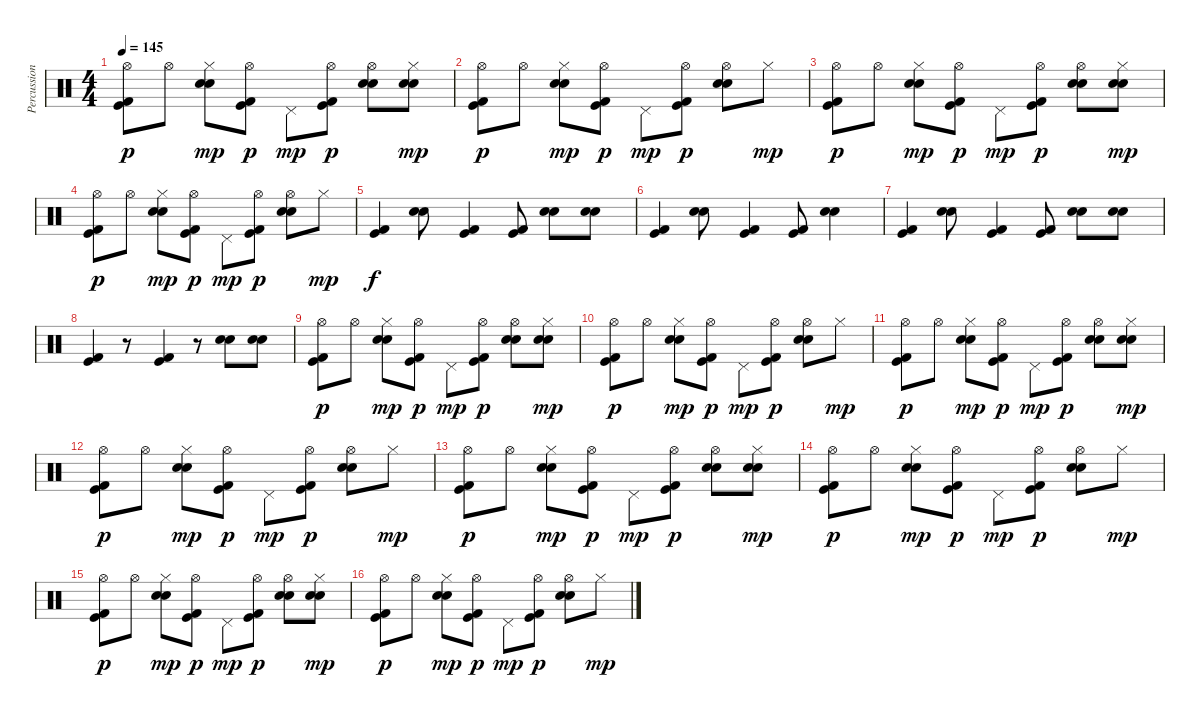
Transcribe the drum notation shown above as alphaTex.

\track ("Percussions" "Percussion") {instrument percussion}
\staff {score}
\articulation defaults
\ts (4 4)
\tempo 145
\clef neutral
\ks c
("Kick (hit) 2" "Kick (hit)" "Hi-Hat (open)").8{dy p} "Hi-Hat (open)".8 ("Snare (hit) 2" "Electric Snare (hit)" "Hi-Hat (closed)").8{dy mp} ("Kick (hit) 2" "Kick (hit)" "Hi-Hat (open)").8{dy p} "Pedal Hi-Hat (hit)".8{dy mp} ("Kick (hit) 2" "Kick (hit)" "Hi-Hat (open)").8{dy p} ("Snare (hit) 2" "Electric Snare (hit)" "Hi-Hat (open)").8 ("Snare (hit) 2" "Electric Snare (hit)" "Hi-Hat (closed)").8{dy mp} |
("Kick (hit) 2" "Kick (hit)" "Hi-Hat (open)").8{dy p} "Hi-Hat (open)".8 ("Snare (hit) 2" "Electric Snare (hit)" "Hi-Hat (closed)").8{dy mp} ("Kick (hit) 2" "Kick (hit)" "Hi-Hat (open)").8{dy p} "Pedal Hi-Hat (hit)".8{dy mp} ("Kick (hit) 2" "Kick (hit)" "Hi-Hat (open)").8{dy p} ("Snare (hit) 2" "Electric Snare (hit)" "Hi-Hat (open)").8 "Hi-Hat (closed)".8{dy mp} |
("Kick (hit) 2" "Kick (hit)" "Hi-Hat (open)").8{dy p} "Hi-Hat (open)".8 ("Snare (hit) 2" "Electric Snare (hit)" "Hi-Hat (closed)").8{dy mp} ("Kick (hit) 2" "Kick (hit)" "Hi-Hat (open)").8{dy p} "Pedal Hi-Hat (hit)".8{dy mp} ("Kick (hit) 2" "Kick (hit)" "Hi-Hat (open)").8{dy p} ("Snare (hit) 2" "Electric Snare (hit)" "Hi-Hat (open)").8 ("Snare (hit) 2" "Electric Snare (hit)" "Hi-Hat (closed)").8{dy mp} |
("Kick (hit) 2" "Kick (hit)" "Hi-Hat (open)").8{dy p} "Hi-Hat (open)".8 ("Snare (hit) 2" "Electric Snare (hit)" "Hi-Hat (closed)").8{dy mp} ("Kick (hit) 2" "Kick (hit)" "Hi-Hat (open)").8{dy p} "Pedal Hi-Hat (hit)".8{dy mp} ("Kick (hit) 2" "Kick (hit)" "Hi-Hat (open)").8{dy p} ("Snare (hit) 2" "Electric Snare (hit)" "Hi-Hat (open)").8 "Hi-Hat (closed)".8{dy mp} |
("Kick (hit) 2" "Kick (hit)").4{dy f} ("Snare (hit) 2" "Electric Snare (hit)").8 ("Kick (hit) 2" "Kick (hit)").4 ("Kick (hit) 2" "Kick (hit)").8 ("Snare (hit) 2" "Electric Snare (hit)").8 ("Snare (hit) 2" "Electric Snare (hit)").8 |
("Kick (hit) 2" "Kick (hit)").4 ("Snare (hit) 2" "Electric Snare (hit)").8 ("Kick (hit) 2" "Kick (hit)").4 ("Kick (hit) 2" "Kick (hit)").8 ("Snare (hit) 2" "Electric Snare (hit)").4 |
("Kick (hit) 2" "Kick (hit)").4 ("Snare (hit) 2" "Electric Snare (hit)").8 ("Kick (hit) 2" "Kick (hit)").4 ("Kick (hit) 2" "Kick (hit)").8 ("Snare (hit) 2" "Electric Snare (hit)").8 ("Snare (hit) 2" "Electric Snare (hit)").8 |
("Kick (hit) 2" "Kick (hit)").4 r.8 ("Kick (hit) 2" "Kick (hit)").4 r.8 ("Snare (hit) 2" "Electric Snare (hit)").8 ("Snare (hit) 2" "Electric Snare (hit)").8 |
("Kick (hit) 2" "Kick (hit)" "Hi-Hat (open)").8{dy p} "Hi-Hat (open)".8 ("Snare (hit) 2" "Electric Snare (hit)" "Hi-Hat (closed)").8{dy mp} ("Kick (hit) 2" "Kick (hit)" "Hi-Hat (open)").8{dy p} "Pedal Hi-Hat (hit)".8{dy mp} ("Kick (hit) 2" "Kick (hit)" "Hi-Hat (open)").8{dy p} ("Snare (hit) 2" "Electric Snare (hit)" "Hi-Hat (open)").8 ("Snare (hit) 2" "Electric Snare (hit)" "Hi-Hat (closed)").8{dy mp} |
("Kick (hit) 2" "Kick (hit)" "Hi-Hat (open)").8{dy p} "Hi-Hat (open)".8 ("Snare (hit) 2" "Electric Snare (hit)" "Hi-Hat (closed)").8{dy mp} ("Kick (hit) 2" "Kick (hit)" "Hi-Hat (open)").8{dy p} "Pedal Hi-Hat (hit)".8{dy mp} ("Kick (hit) 2" "Kick (hit)" "Hi-Hat (open)").8{dy p} ("Snare (hit) 2" "Electric Snare (hit)" "Hi-Hat (open)").8 "Hi-Hat (closed)".8{dy mp} |
("Kick (hit) 2" "Kick (hit)" "Hi-Hat (open)").8{dy p} "Hi-Hat (open)".8 ("Snare (hit) 2" "Electric Snare (hit)" "Hi-Hat (closed)").8{dy mp} ("Kick (hit) 2" "Kick (hit)" "Hi-Hat (open)").8{dy p} "Pedal Hi-Hat (hit)".8{dy mp} ("Kick (hit) 2" "Kick (hit)" "Hi-Hat (open)").8{dy p} ("Snare (hit) 2" "Electric Snare (hit)" "Hi-Hat (open)").8 ("Snare (hit) 2" "Electric Snare (hit)" "Hi-Hat (closed)").8{dy mp} |
("Kick (hit) 2" "Kick (hit)" "Hi-Hat (open)").8{dy p} "Hi-Hat (open)".8 ("Snare (hit) 2" "Electric Snare (hit)" "Hi-Hat (closed)").8{dy mp} ("Kick (hit) 2" "Kick (hit)" "Hi-Hat (open)").8{dy p} "Pedal Hi-Hat (hit)".8{dy mp} ("Kick (hit) 2" "Kick (hit)" "Hi-Hat (open)").8{dy p} ("Snare (hit) 2" "Electric Snare (hit)" "Hi-Hat (open)").8 "Hi-Hat (closed)".8{dy mp} |
("Kick (hit) 2" "Kick (hit)" "Hi-Hat (open)").8{dy p} "Hi-Hat (open)".8 ("Snare (hit) 2" "Electric Snare (hit)" "Hi-Hat (closed)").8{dy mp} ("Kick (hit) 2" "Kick (hit)" "Hi-Hat (open)").8{dy p} "Pedal Hi-Hat (hit)".8{dy mp} ("Kick (hit) 2" "Kick (hit)" "Hi-Hat (open)").8{dy p} ("Snare (hit) 2" "Electric Snare (hit)" "Hi-Hat (open)").8 ("Snare (hit) 2" "Electric Snare (hit)" "Hi-Hat (closed)").8{dy mp} |
("Kick (hit) 2" "Kick (hit)" "Hi-Hat (open)").8{dy p} "Hi-Hat (open)".8 ("Snare (hit) 2" "Electric Snare (hit)" "Hi-Hat (closed)").8{dy mp} ("Kick (hit) 2" "Kick (hit)" "Hi-Hat (open)").8{dy p} "Pedal Hi-Hat (hit)".8{dy mp} ("Kick (hit) 2" "Kick (hit)" "Hi-Hat (open)").8{dy p} ("Snare (hit) 2" "Electric Snare (hit)" "Hi-Hat (open)").8 "Hi-Hat (closed)".8{dy mp} |
("Kick (hit) 2" "Kick (hit)" "Hi-Hat (open)").8{dy p} "Hi-Hat (open)".8 ("Snare (hit) 2" "Electric Snare (hit)" "Hi-Hat (closed)").8{dy mp} ("Kick (hit) 2" "Kick (hit)" "Hi-Hat (open)").8{dy p} "Pedal Hi-Hat (hit)".8{dy mp} ("Kick (hit) 2" "Kick (hit)" "Hi-Hat (open)").8{dy p} ("Snare (hit) 2" "Electric Snare (hit)" "Hi-Hat (open)").8 ("Snare (hit) 2" "Electric Snare (hit)" "Hi-Hat (closed)").8{dy mp} |
("Kick (hit) 2" "Kick (hit)" "Hi-Hat (open)").8{dy p} "Hi-Hat (open)".8 ("Snare (hit) 2" "Electric Snare (hit)" "Hi-Hat (closed)").8{dy mp} ("Kick (hit) 2" "Kick (hit)" "Hi-Hat (open)").8{dy p} "Pedal Hi-Hat (hit)".8{dy mp} ("Kick (hit) 2" "Kick (hit)" "Hi-Hat (open)").8{dy p} ("Snare (hit) 2" "Electric Snare (hit)" "Hi-Hat (open)").8 "Hi-Hat (closed)".8{dy mp}
